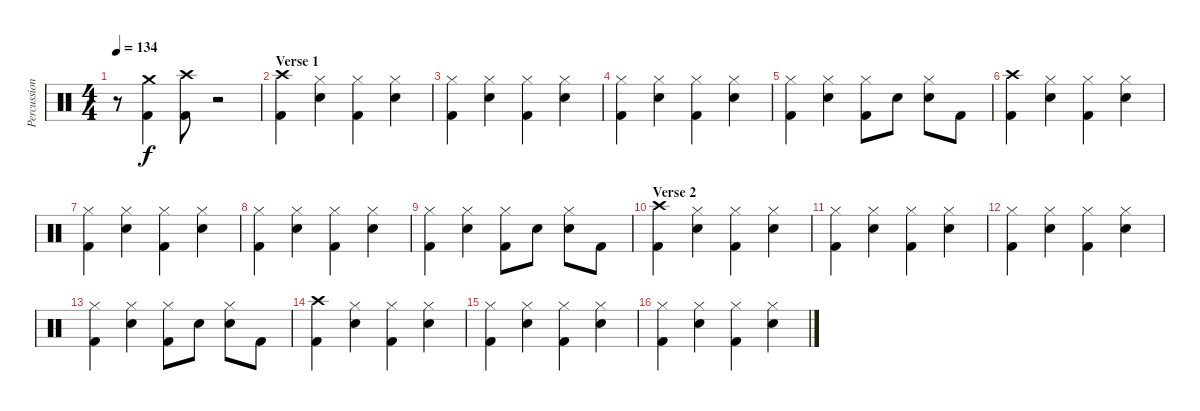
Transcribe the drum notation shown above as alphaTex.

\track ("Percussion" "Percussion") {instrument percussion}
\staff {score}
\articulation defaults
\ts (4 4)
\tempo 134
\clef neutral
\ks c
r.8{dy f} ("Kick (hit) 2" "Crash medium (hit)").4 ("Kick (hit) 2" "Crash high (hit)").8 r.2 |
\section ("" "Verse 1")
("Kick (hit) 2" "Crash high (hit)").4 ("Snare (hit) 2" "Hi-Hat (closed)").4 ("Kick (hit) 2" "Hi-Hat (closed)").4 ("Snare (hit) 2" "Hi-Hat (closed)").4 |
("Kick (hit) 2" "Hi-Hat (closed)").4 ("Snare (hit) 2" "Hi-Hat (closed)").4 ("Kick (hit) 2" "Hi-Hat (closed)").4 ("Snare (hit) 2" "Hi-Hat (closed)").4 |
("Kick (hit) 2" "Hi-Hat (closed)").4 ("Snare (hit) 2" "Hi-Hat (closed)").4 ("Kick (hit) 2" "Hi-Hat (closed)").4 ("Snare (hit) 2" "Hi-Hat (closed)").4 |
("Kick (hit) 2" "Hi-Hat (closed)").4 ("Snare (hit) 2" "Hi-Hat (closed)").4 ("Kick (hit) 2" "Hi-Hat (closed)").8 "Snare (hit) 2".8 ("Snare (hit) 2" "Hi-Hat (closed)").8 "Kick (hit) 2".8 |
("Kick (hit) 2" "Crash high (hit)").4 ("Snare (hit) 2" "Hi-Hat (closed)").4 ("Kick (hit) 2" "Hi-Hat (closed)").4 ("Snare (hit) 2" "Hi-Hat (closed)").4 |
("Kick (hit) 2" "Hi-Hat (closed)").4 ("Snare (hit) 2" "Hi-Hat (closed)").4 ("Kick (hit) 2" "Hi-Hat (closed)").4 ("Snare (hit) 2" "Hi-Hat (closed)").4 |
("Kick (hit) 2" "Hi-Hat (closed)").4 ("Snare (hit) 2" "Hi-Hat (closed)").4 ("Kick (hit) 2" "Hi-Hat (closed)").4 ("Snare (hit) 2" "Hi-Hat (closed)").4 |
("Kick (hit) 2" "Hi-Hat (closed)").4 ("Snare (hit) 2" "Hi-Hat (closed)").4 ("Kick (hit) 2" "Hi-Hat (closed)").8 "Snare (hit) 2".8 ("Snare (hit) 2" "Hi-Hat (closed)").8 "Kick (hit) 2".8 |
\section ("" "Verse 2")
("Kick (hit) 2" "Crash high (hit)").4 ("Snare (hit) 2" "Hi-Hat (closed)").4 ("Kick (hit) 2" "Hi-Hat (closed)").4 ("Snare (hit) 2" "Hi-Hat (closed)").4 |
("Kick (hit) 2" "Hi-Hat (closed)").4 ("Snare (hit) 2" "Hi-Hat (closed)").4 ("Kick (hit) 2" "Hi-Hat (closed)").4 ("Snare (hit) 2" "Hi-Hat (closed)").4 |
("Kick (hit) 2" "Hi-Hat (closed)").4 ("Snare (hit) 2" "Hi-Hat (closed)").4 ("Kick (hit) 2" "Hi-Hat (closed)").4 ("Snare (hit) 2" "Hi-Hat (closed)").4 |
("Kick (hit) 2" "Hi-Hat (closed)").4 ("Snare (hit) 2" "Hi-Hat (closed)").4 ("Kick (hit) 2" "Hi-Hat (closed)").8 "Snare (hit) 2".8 ("Snare (hit) 2" "Hi-Hat (closed)").8 "Kick (hit) 2".8 |
("Kick (hit) 2" "Crash high (hit)").4 ("Snare (hit) 2" "Hi-Hat (closed)").4 ("Kick (hit) 2" "Hi-Hat (closed)").4 ("Snare (hit) 2" "Hi-Hat (closed)").4 |
("Kick (hit) 2" "Hi-Hat (closed)").4 ("Snare (hit) 2" "Hi-Hat (closed)").4 ("Kick (hit) 2" "Hi-Hat (closed)").4 ("Snare (hit) 2" "Hi-Hat (closed)").4 |
("Kick (hit) 2" "Hi-Hat (closed)").4 ("Snare (hit) 2" "Hi-Hat (closed)").4 ("Kick (hit) 2" "Hi-Hat (closed)").4 ("Snare (hit) 2" "Hi-Hat (closed)").4
